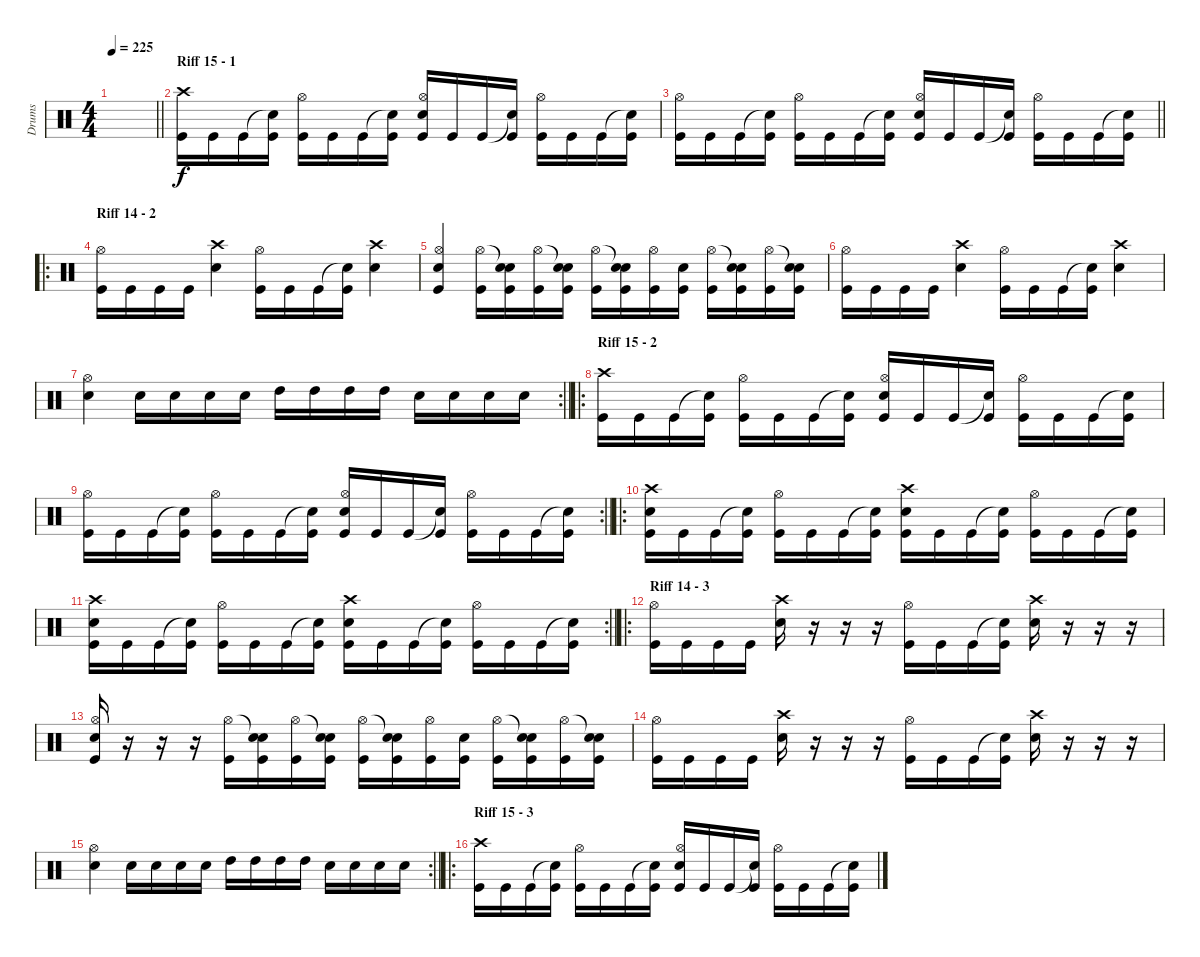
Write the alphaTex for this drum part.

\track ("Drums" "Drums") {instrument percussion}
\staff {score}
\articulation defaults
\ts (4 4)
\tempo 225
\clef neutral
\barLineRight lightlight
\ks c
|
\section ("" "Riff 15 - 1")
("Crash high (hit)" "Kick (hit)").16 "Kick (hit)".16 "Kick (hit)".16 ("Snare (hit)"{t} "Kick (hit)").16 ("Hi-Hat (open)" "Kick (hit)").16 "Kick (hit)".16 "Kick (hit)".16 ("Snare (hit)"{t} "Kick (hit)").16 ("Hi-Hat (open)" "Electric Snare (hit)" "Kick (hit)").16 "Kick (hit)".16 "Kick (hit)".16 ("Snare (hit)"{t} "Kick (hit)").16 ("Hi-Hat (open)" "Kick (hit)").16 "Kick (hit)".16 "Kick (hit)".16 ("Snare (hit)"{t} "Kick (hit)").16 |
\barLineRight lightlight
("Hi-Hat (open)" "Kick (hit)").16 "Kick (hit)".16 "Kick (hit)".16 ("Snare (hit)"{t} "Kick (hit)").16 ("Hi-Hat (open)" "Kick (hit)").16 "Kick (hit)".16 "Kick (hit)".16 ("Snare (hit)"{t} "Kick (hit)").16 ("Hi-Hat (open)" "Electric Snare (hit)" "Kick (hit)").16 "Kick (hit)".16 "Kick (hit)".16 ("Snare (hit)"{t} "Kick (hit)").16 ("Hi-Hat (open)" "Kick (hit)").16 "Kick (hit)".16 "Kick (hit)".16 ("Snare (hit)"{t} "Kick (hit)").16 |
\ro
\section ("" "Riff 14 - 2")
("Hi-Hat (open)" "Kick (hit)").16 "Kick (hit)".16 "Kick (hit)".16 "Kick (hit)".16 ("Crash high (hit)" "Electric Snare (hit)").4 ("Hi-Hat (open)" "Kick (hit)").16 "Kick (hit)".16 "Kick (hit)".16 ("Snare (hit)"{t} "Kick (hit)").16 ("Crash high (hit)" "Electric Snare (hit)").4 |
("Hi-Hat (open)" "Electric Snare (hit)" "Kick (hit)").4 ("Hi-Hat (open)" "Kick (hit)").16 ("Snare (hit)"{t} "Electric Snare (hit)" "Kick (hit)").16 ("Hi-Hat (open)" "Kick (hit)").16 ("Snare (hit)"{t} "Electric Snare (hit)" "Kick (hit)").16 ("Hi-Hat (open)" "Kick (hit)").16 ("Snare (hit)"{t} "Electric Snare (hit)" "Kick (hit)").16 ("Hi-Hat (open)" "Kick (hit)").16 ("Electric Snare (hit)" "Kick (hit)").16 ("Hi-Hat (open)" "Kick (hit)").16 ("Snare (hit)"{t} "Electric Snare (hit)" "Kick (hit)").16 ("Hi-Hat (open)" "Kick (hit)").16 ("Snare (hit)"{t} "Electric Snare (hit)" "Kick (hit)").16 |
("Hi-Hat (open)" "Kick (hit)").16 "Kick (hit)".16 "Kick (hit)".16 "Kick (hit)".16 ("Crash high (hit)" "Electric Snare (hit)").4 ("Hi-Hat (open)" "Kick (hit)").16 "Kick (hit)".16 "Kick (hit)".16 ("Snare (hit)"{t} "Kick (hit)").16 ("Crash high (hit)" "Electric Snare (hit)").4 |
\rc 2
\barLineRight lightlight
("Hi-Hat (open)" "Electric Snare (hit)").4 "Electric Snare (hit)".16 "Electric Snare (hit)".16 "Electric Snare (hit)".16 "Electric Snare (hit)".16 "High Tom (hit)".16 "High Tom (hit)".16 "High Tom (hit)".16 "High Tom (hit)".16 "Electric Snare (hit)".16 "Electric Snare (hit)".16 "Electric Snare (hit)".16 "Electric Snare (hit)".16 |
\ro
\section ("" "Riff 15 - 2")
("Crash high (hit)" "Kick (hit)").16 "Kick (hit)".16 "Kick (hit)".16 ("Snare (hit)"{t} "Kick (hit)").16 ("Hi-Hat (open)" "Kick (hit)").16 "Kick (hit)".16 "Kick (hit)".16 ("Snare (hit)"{t} "Kick (hit)").16 ("Hi-Hat (open)" "Electric Snare (hit)" "Kick (hit)").16 "Kick (hit)".16 "Kick (hit)".16 ("Snare (hit)"{t} "Kick (hit)").16 ("Hi-Hat (open)" "Kick (hit)").16 "Kick (hit)".16 "Kick (hit)".16 ("Snare (hit)"{t} "Kick (hit)").16 |
\rc 2
\barLineRight lightlight
("Hi-Hat (open)" "Kick (hit)").16 "Kick (hit)".16 "Kick (hit)".16 ("Snare (hit)"{t} "Kick (hit)").16 ("Hi-Hat (open)" "Kick (hit)").16 "Kick (hit)".16 "Kick (hit)".16 ("Snare (hit)"{t} "Kick (hit)").16 ("Hi-Hat (open)" "Electric Snare (hit)" "Kick (hit)").16 "Kick (hit)".16 "Kick (hit)".16 ("Snare (hit)"{t} "Kick (hit)").16 ("Hi-Hat (open)" "Kick (hit)").16 "Kick (hit)".16 "Kick (hit)".16 ("Snare (hit)"{t} "Kick (hit)").16 |
\ro
("Crash high (hit)" "Electric Snare (hit)" "Kick (hit)").16 "Kick (hit)".16 "Kick (hit)".16 ("Snare (hit)"{t} "Kick (hit)").16 ("Hi-Hat (open)" "Kick (hit)").16 "Kick (hit)".16 "Kick (hit)".16 ("Snare (hit)"{t} "Kick (hit)").16 ("Crash high (hit)" "Electric Snare (hit)" "Kick (hit)").16 "Kick (hit)".16 "Kick (hit)".16 ("Snare (hit)"{t} "Kick (hit)").16 ("Hi-Hat (open)" "Kick (hit)").16 "Kick (hit)".16 "Kick (hit)".16 ("Snare (hit)"{t} "Kick (hit)").16 |
\rc 2
\barLineRight lightlight
("Crash high (hit)" "Electric Snare (hit)" "Kick (hit)").16 "Kick (hit)".16 "Kick (hit)".16 ("Snare (hit)"{t} "Kick (hit)").16 ("Hi-Hat (open)" "Kick (hit)").16 "Kick (hit)".16 "Kick (hit)".16 ("Snare (hit)"{t} "Kick (hit)").16 ("Crash high (hit)" "Electric Snare (hit)" "Kick (hit)").16 "Kick (hit)".16 "Kick (hit)".16 ("Snare (hit)"{t} "Kick (hit)").16 ("Hi-Hat (open)" "Kick (hit)").16 "Kick (hit)".16 "Kick (hit)".16 ("Snare (hit)"{t} "Kick (hit)").16 |
\ro
\section ("" "Riff 14 - 3")
("Hi-Hat (open)" "Kick (hit)").16 "Kick (hit)".16 "Kick (hit)".16 "Kick (hit)".16 ("Crash high (hit)" "Electric Snare (hit)").16 r.16 r.16 r.16 ("Hi-Hat (open)" "Kick (hit)").16 "Kick (hit)".16 "Kick (hit)".16 ("Snare (hit)"{t} "Kick (hit)").16 ("Crash high (hit)" "Electric Snare (hit)").16 r.16 r.16 r.16 |
("Hi-Hat (open)" "Electric Snare (hit)" "Kick (hit)").16 r.16 r.16 r.16 ("Hi-Hat (open)" "Kick (hit)").16 ("Snare (hit)"{t} "Electric Snare (hit)" "Kick (hit)").16 ("Hi-Hat (open)" "Kick (hit)").16 ("Snare (hit)"{t} "Electric Snare (hit)" "Kick (hit)").16 ("Hi-Hat (open)" "Kick (hit)").16 ("Snare (hit)"{t} "Electric Snare (hit)" "Kick (hit)").16 ("Hi-Hat (open)" "Kick (hit)").16 ("Electric Snare (hit)" "Kick (hit)").16 ("Hi-Hat (open)" "Kick (hit)").16 ("Snare (hit)"{t} "Electric Snare (hit)" "Kick (hit)").16 ("Hi-Hat (open)" "Kick (hit)").16 ("Snare (hit)"{t} "Electric Snare (hit)" "Kick (hit)").16 |
("Hi-Hat (open)" "Kick (hit)").16 "Kick (hit)".16 "Kick (hit)".16 "Kick (hit)".16 ("Crash high (hit)" "Electric Snare (hit)").16 r.16 r.16 r.16 ("Hi-Hat (open)" "Kick (hit)").16 "Kick (hit)".16 "Kick (hit)".16 ("Snare (hit)"{t} "Kick (hit)").16 ("Crash high (hit)" "Electric Snare (hit)").16 r.16 r.16 r.16 |
\rc 2
\barLineRight lightlight
("Hi-Hat (open)" "Electric Snare (hit)").4 "Electric Snare (hit)".16 "Electric Snare (hit)".16 "Electric Snare (hit)".16 "Electric Snare (hit)".16 "High Tom (hit)".16 "High Tom (hit)".16 "High Tom (hit)".16 "High Tom (hit)".16 "Electric Snare (hit)".16 "Electric Snare (hit)".16 "Electric Snare (hit)".16 "Electric Snare (hit)".16 |
\ro
\section ("" "Riff 15 - 3")
("Crash high (hit)" "Kick (hit)").16 "Kick (hit)".16 "Kick (hit)".16 ("Snare (hit)"{t} "Kick (hit)").16 ("Hi-Hat (open)" "Kick (hit)").16 "Kick (hit)".16 "Kick (hit)".16 ("Snare (hit)"{t} "Kick (hit)").16 ("Hi-Hat (open)" "Electric Snare (hit)" "Kick (hit)").16 "Kick (hit)".16 "Kick (hit)".16 ("Snare (hit)"{t} "Kick (hit)").16 ("Hi-Hat (open)" "Kick (hit)").16 "Kick (hit)".16 "Kick (hit)".16 ("Snare (hit)"{t} "Kick (hit)").16
